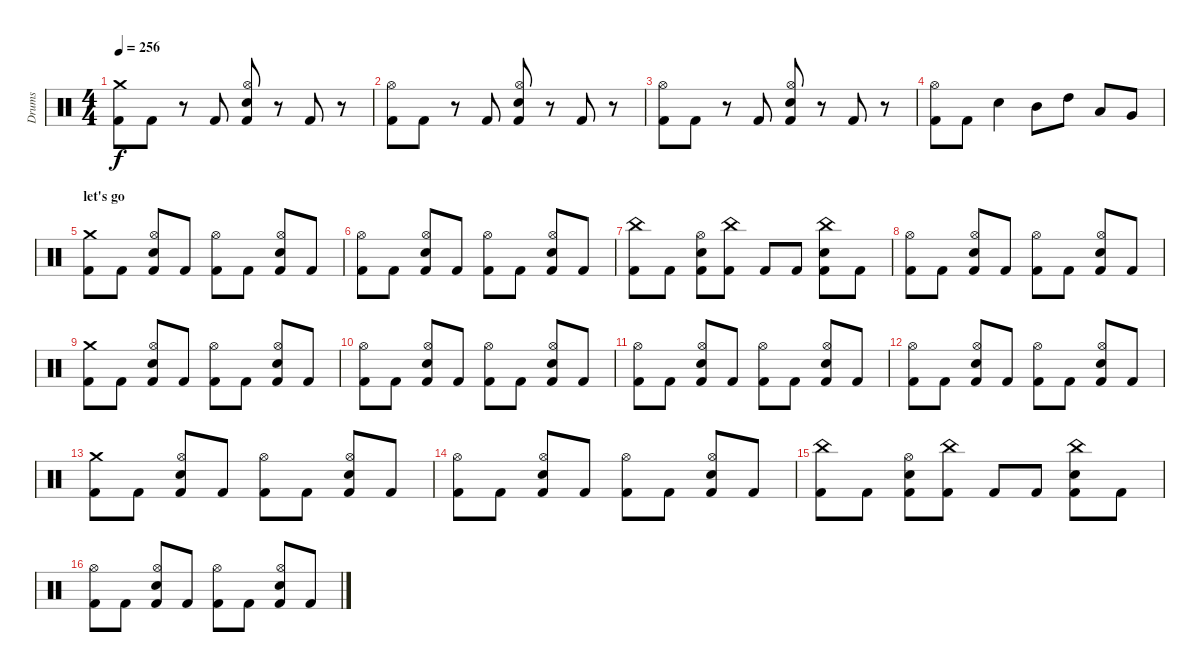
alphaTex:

\track ("Drums" "Drums") {instrument percussion}
\staff {score}
\articulation defaults
\ts (4 4)
\tempo 256
\clef neutral
\ks c
("Crash medium (hit)" "Kick (hit) 2").8{dy f} "Kick (hit) 2".8 r.8 "Kick (hit) 2".8 ("Hi-Hat (open)" "Snare (hit) 2" "Kick (hit) 2").8 r.8 "Kick (hit) 2".8 r.8 |
("Hi-Hat (open)" "Kick (hit) 2").8 "Kick (hit) 2".8 r.8 "Kick (hit) 2".8 ("Hi-Hat (open)" "Snare (hit) 2" "Kick (hit) 2").8 r.8 "Kick (hit) 2".8 r.8 |
("Hi-Hat (open)" "Kick (hit) 2").8 "Kick (hit) 2".8 r.8 "Kick (hit) 2".8 ("Hi-Hat (open)" "Snare (hit) 2" "Kick (hit) 2").8 r.8 "Kick (hit) 2".8 r.8 |
("Hi-Hat (open)" "Kick (hit) 2").8 "Kick (hit) 2".8 "Snare (hit) 2".4 "Mid Tom (hit)".8 "High Tom (hit)".8 "Low Tom (hit)".8 "Very Low Tom (hit)".8 |
\section ("" "let's go")
("Crash medium (hit)" "Kick (hit) 2").8 "Kick (hit) 2".8 ("Hi-Hat (open)" "Snare (hit) 2" "Kick (hit) 2").8 "Kick (hit) 2".8 ("Hi-Hat (open)" "Kick (hit) 2").8 "Kick (hit) 2".8 ("Hi-Hat (open)" "Snare (hit) 2" "Kick (hit) 2").8 "Kick (hit) 2".8 |
("Hi-Hat (open)" "Kick (hit) 2").8 "Kick (hit) 2".8 ("Hi-Hat (open)" "Snare (hit) 2" "Kick (hit) 2").8 "Kick (hit) 2".8 ("Hi-Hat (open)" "Kick (hit) 2").8 "Kick (hit) 2".8 ("Hi-Hat (open)" "Snare (hit) 2" "Kick (hit) 2").8 "Kick (hit) 2".8 |
("China (hit)" "Kick (hit) 2").8 "Kick (hit) 2".8 ("Hi-Hat (open)" "Snare (hit) 2" "Kick (hit) 2").8 ("China (hit)" "Kick (hit) 2").8 "Kick (hit) 2".8 "Kick (hit) 2".8 ("China (hit)" "Snare (hit) 2" "Kick (hit) 2").8 "Kick (hit) 2".8 |
("Hi-Hat (open)" "Kick (hit) 2").8 "Kick (hit) 2".8 ("Hi-Hat (open)" "Snare (hit) 2" "Kick (hit) 2").8 "Kick (hit) 2".8 ("Hi-Hat (open)" "Kick (hit) 2").8 "Kick (hit) 2".8 ("Hi-Hat (open)" "Snare (hit) 2" "Kick (hit) 2").8 "Kick (hit) 2".8 |
("Crash medium (hit)" "Kick (hit) 2").8 "Kick (hit) 2".8 ("Hi-Hat (open)" "Snare (hit) 2" "Kick (hit) 2").8 "Kick (hit) 2".8 ("Hi-Hat (open)" "Kick (hit) 2").8 "Kick (hit) 2".8 ("Hi-Hat (open)" "Snare (hit) 2" "Kick (hit) 2").8 "Kick (hit) 2".8 |
("Hi-Hat (open)" "Kick (hit) 2").8 "Kick (hit) 2".8 ("Hi-Hat (open)" "Snare (hit) 2" "Kick (hit) 2").8 "Kick (hit) 2".8 ("Hi-Hat (open)" "Kick (hit) 2").8 "Kick (hit) 2".8 ("Hi-Hat (open)" "Snare (hit) 2" "Kick (hit) 2").8 "Kick (hit) 2".8 |
("Hi-Hat (open)" "Kick (hit) 2").8 "Kick (hit) 2".8 ("Hi-Hat (open)" "Snare (hit) 2" "Kick (hit) 2").8 "Kick (hit) 2".8 ("Hi-Hat (open)" "Kick (hit) 2").8 "Kick (hit) 2".8 ("Hi-Hat (open)" "Snare (hit) 2" "Kick (hit) 2").8 "Kick (hit) 2".8 |
("Hi-Hat (open)" "Kick (hit) 2").8 "Kick (hit) 2".8 ("Hi-Hat (open)" "Snare (hit) 2" "Kick (hit) 2").8 "Kick (hit) 2".8 ("Hi-Hat (open)" "Kick (hit) 2").8 "Kick (hit) 2".8 ("Hi-Hat (open)" "Snare (hit) 2" "Kick (hit) 2").8 "Kick (hit) 2".8 |
("Crash medium (hit)" "Kick (hit) 2").8 "Kick (hit) 2".8 ("Hi-Hat (open)" "Snare (hit) 2" "Kick (hit) 2").8 "Kick (hit) 2".8 ("Hi-Hat (open)" "Kick (hit) 2").8 "Kick (hit) 2".8 ("Hi-Hat (open)" "Snare (hit) 2" "Kick (hit) 2").8 "Kick (hit) 2".8 |
("Hi-Hat (open)" "Kick (hit) 2").8 "Kick (hit) 2".8 ("Hi-Hat (open)" "Snare (hit) 2" "Kick (hit) 2").8 "Kick (hit) 2".8 ("Hi-Hat (open)" "Kick (hit) 2").8 "Kick (hit) 2".8 ("Hi-Hat (open)" "Snare (hit) 2" "Kick (hit) 2").8 "Kick (hit) 2".8 |
("China (hit)" "Kick (hit) 2").8 "Kick (hit) 2".8 ("Hi-Hat (open)" "Snare (hit) 2" "Kick (hit) 2").8 ("China (hit)" "Kick (hit) 2").8 "Kick (hit) 2".8 "Kick (hit) 2".8 ("China (hit)" "Snare (hit) 2" "Kick (hit) 2").8 "Kick (hit) 2".8 |
("Hi-Hat (open)" "Kick (hit) 2").8 "Kick (hit) 2".8 ("Hi-Hat (open)" "Snare (hit) 2" "Kick (hit) 2").8 "Kick (hit) 2".8 ("Hi-Hat (open)" "Kick (hit) 2").8 "Kick (hit) 2".8 ("Hi-Hat (open)" "Snare (hit) 2" "Kick (hit) 2").8 "Kick (hit) 2".8
